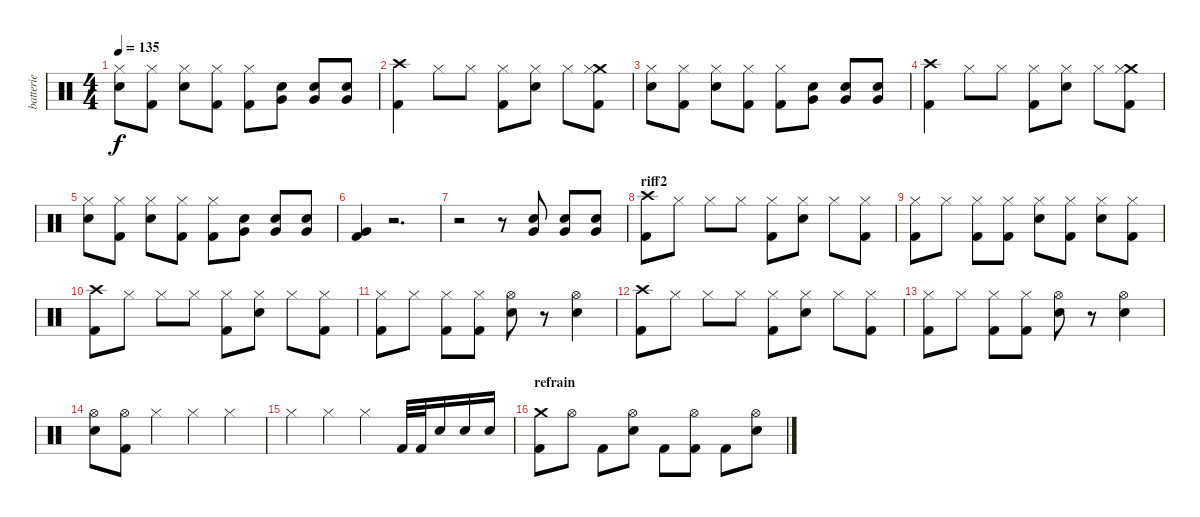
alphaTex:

\track ("batterie" "batterie") {instrument percussion}
\staff {score}
\articulation defaults
\ts (4 4)
\tempo 135
\clef neutral
\ks c
("Snare (hit) 2" "Hi-Hat (closed)").8{dy f} ("Kick (hit) 2" "Hi-Hat (closed)").8 ("Snare (hit) 2" "Hi-Hat (closed)").8 ("Kick (hit) 2" "Hi-Hat (closed)").8 ("Kick (hit) 2" "Hi-Hat (closed)").8 ("Very Low Tom (hit)" "Snare (hit) 2").8 ("Very Low Tom (hit)" "Snare (hit) 2").8 ("Very Low Tom (hit)" "Snare (hit) 2").8 |
("Crash high (hit)" "Kick (hit) 2").4 "Hi-Hat (closed)".8 "Hi-Hat (closed)".8 ("Kick (hit) 2" "Hi-Hat (closed)").8 ("Snare (hit) 2" "Hi-Hat (closed)").8 "Hi-Hat (closed)".8 ("Crash medium (hit)" "Kick (hit) 2" "Hi-Hat (closed)").8 |
("Snare (hit) 2" "Hi-Hat (closed)").8 ("Kick (hit) 2" "Hi-Hat (closed)").8 ("Snare (hit) 2" "Hi-Hat (closed)").8 ("Kick (hit) 2" "Hi-Hat (closed)").8 ("Kick (hit) 2" "Hi-Hat (closed)").8 ("Very Low Tom (hit)" "Snare (hit) 2").8 ("Very Low Tom (hit)" "Snare (hit) 2").8 ("Very Low Tom (hit)" "Snare (hit) 2").8 |
("Crash high (hit)" "Kick (hit) 2").4 "Hi-Hat (closed)".8 "Hi-Hat (closed)".8 ("Kick (hit) 2" "Hi-Hat (closed)").8 ("Snare (hit) 2" "Hi-Hat (closed)").8 "Hi-Hat (closed)".8 ("Crash medium (hit)" "Kick (hit) 2" "Hi-Hat (closed)").8 |
("Snare (hit) 2" "Hi-Hat (closed)").8 ("Kick (hit) 2" "Hi-Hat (closed)").8 ("Snare (hit) 2" "Hi-Hat (closed)").8 ("Kick (hit) 2" "Hi-Hat (closed)").8 ("Kick (hit) 2" "Hi-Hat (closed)").8 ("Very Low Tom (hit)" "Snare (hit) 2").8 ("Very Low Tom (hit)" "Snare (hit) 2").8 ("Very Low Tom (hit)" "Snare (hit) 2").8 |
("Very Low Tom (hit)" "Kick (hit) 2").4 r.2{d} |
r.2 r.8 ("Very Low Tom (hit)" "Snare (hit) 2").8 ("Very Low Tom (hit)" "Snare (hit) 2").8 ("Very Low Tom (hit)" "Snare (hit) 2").8 |
\section ("" "riff2")
("Crash high (hit)" "Kick (hit) 2").8 "Hi-Hat (closed)".8 "Hi-Hat (closed)".8 "Hi-Hat (closed)".8 ("Kick (hit) 2" "Hi-Hat (closed)").8 ("Snare (hit) 2" "Hi-Hat (closed)").8 "Hi-Hat (closed)".8 ("Kick (hit) 2" "Hi-Hat (closed)").8 |
("Kick (hit) 2" "Hi-Hat (closed)").8 "Hi-Hat (closed)".8 ("Kick (hit) 2" "Hi-Hat (closed)").8 ("Kick (hit) 2" "Hi-Hat (closed)").8 ("Snare (hit) 2" "Hi-Hat (closed)").8 ("Kick (hit) 2" "Hi-Hat (closed)").8 ("Snare (hit) 2" "Hi-Hat (closed)").8 ("Kick (hit) 2" "Hi-Hat (closed)").8 |
("Crash high (hit)" "Kick (hit) 2").8 "Hi-Hat (closed)".8 "Hi-Hat (closed)".8 "Hi-Hat (closed)".8 ("Kick (hit) 2" "Hi-Hat (closed)").8 ("Snare (hit) 2" "Hi-Hat (closed)").8 "Hi-Hat (closed)".8 ("Kick (hit) 2" "Hi-Hat (closed)").8 |
("Kick (hit) 2" "Hi-Hat (closed)").8 "Hi-Hat (closed)".8 ("Kick (hit) 2" "Hi-Hat (closed)").8 ("Kick (hit) 2" "Hi-Hat (closed)").8 ("Snare (hit) 2" "Hi-Hat (open)").8 r.8 ("Snare (hit) 2" "Hi-Hat (open)").4 |
("Crash high (hit)" "Kick (hit) 2").8 "Hi-Hat (closed)".8 "Hi-Hat (closed)".8 "Hi-Hat (closed)".8 ("Kick (hit) 2" "Hi-Hat (closed)").8 ("Snare (hit) 2" "Hi-Hat (closed)").8 "Hi-Hat (closed)".8 ("Kick (hit) 2" "Hi-Hat (closed)").8 |
("Kick (hit) 2" "Hi-Hat (closed)").8 "Hi-Hat (closed)".8 ("Kick (hit) 2" "Hi-Hat (closed)").8 ("Kick (hit) 2" "Hi-Hat (closed)").8 ("Snare (hit) 2" "Hi-Hat (open)").8 r.8 ("Snare (hit) 2" "Hi-Hat (open)").4 |
("Snare (hit) 2" "Hi-Hat (open)").8 ("Kick (hit) 2" "Hi-Hat (open)").8 "Hi-Hat (closed)".4 "Hi-Hat (closed)".4 "Hi-Hat (closed)".4 |
"Hi-Hat (closed)".4 "Hi-Hat (closed)".4 "Hi-Hat (closed)".4 "Kick (hit) 2".32 "Kick (hit) 2".32 "Snare (hit) 2".16 "Snare (hit) 2".16 "Snare (hit) 2".16 |
\section ("" "refrain")
("Crash medium (hit)" "Kick (hit) 2").8 "Hi-Hat (open)".8 "Kick (hit) 2".8 ("Snare (hit) 2" "Hi-Hat (open)").8 "Kick (hit) 2".8 ("Kick (hit) 2" "Hi-Hat (open)").8 "Kick (hit) 2".8 ("Snare (hit) 2" "Hi-Hat (open)").8
